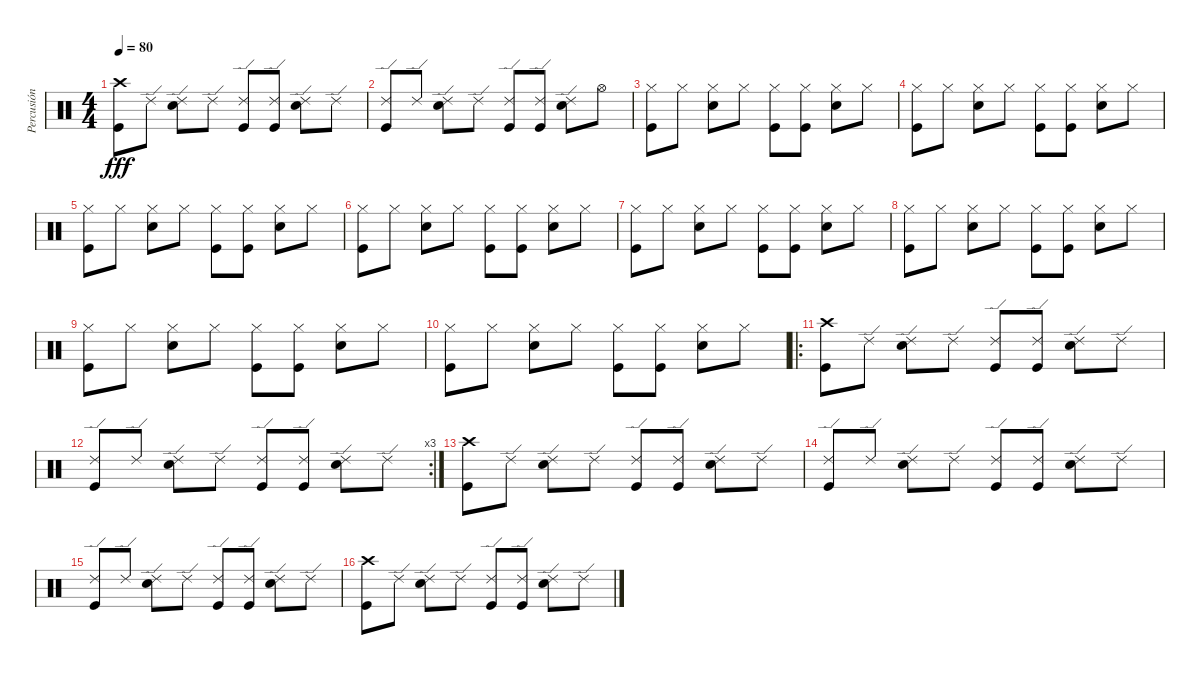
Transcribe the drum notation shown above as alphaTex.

\track ("Percusión" "Percusión") {instrument percussion}
\staff {score}
\articulation defaults
\ts (4 4)
\tempo 80
\clef neutral
\ks c
("Crash high (hit)" "Kick (hit)").8{dy fff} "Ride (edge) 2".8 ("Ride (edge) 2" "Electric Snare (hit)").8 "Ride (edge) 2".8 ("Ride (edge) 2" "Kick (hit)").8 ("Ride (edge) 2" "Kick (hit)").8 ("Ride (edge) 2" "Electric Snare (hit)").8 "Ride (edge) 2".8 |
("Ride (edge) 2" "Kick (hit)").8 "Ride (edge) 2".8 ("Ride (edge) 2" "Electric Snare (hit)").8 "Ride (edge) 2".8 ("Ride (edge) 2" "Kick (hit)").8 ("Ride (edge) 2" "Kick (hit)").8 ("Ride (edge) 2" "Electric Snare (hit)").8 "Hi-Hat (open)".8 |
("Hi-Hat (closed)" "Kick (hit)").8 "Hi-Hat (closed)".8 ("Hi-Hat (closed)" "Electric Snare (hit)").8 "Hi-Hat (closed)".8 ("Hi-Hat (closed)" "Kick (hit)").8 ("Hi-Hat (closed)" "Kick (hit)").8 ("Hi-Hat (closed)" "Electric Snare (hit)").8 "Hi-Hat (closed)".8 |
("Hi-Hat (closed)" "Kick (hit)").8 "Hi-Hat (closed)".8 ("Hi-Hat (closed)" "Electric Snare (hit)").8 "Hi-Hat (closed)".8 ("Hi-Hat (closed)" "Kick (hit)").8 ("Hi-Hat (closed)" "Kick (hit)").8 ("Hi-Hat (closed)" "Electric Snare (hit)").8 "Hi-Hat (closed)".8 |
("Hi-Hat (closed)" "Kick (hit)").8 "Hi-Hat (closed)".8 ("Hi-Hat (closed)" "Electric Snare (hit)").8 "Hi-Hat (closed)".8 ("Hi-Hat (closed)" "Kick (hit)").8 ("Hi-Hat (closed)" "Kick (hit)").8 ("Hi-Hat (closed)" "Electric Snare (hit)").8 "Hi-Hat (closed)".8 |
("Hi-Hat (closed)" "Kick (hit)").8 "Hi-Hat (closed)".8 ("Hi-Hat (closed)" "Electric Snare (hit)").8 "Hi-Hat (closed)".8 ("Hi-Hat (closed)" "Kick (hit)").8 ("Hi-Hat (closed)" "Kick (hit)").8 ("Hi-Hat (closed)" "Electric Snare (hit)").8 "Hi-Hat (closed)".8 |
("Hi-Hat (closed)" "Kick (hit)").8 "Hi-Hat (closed)".8 ("Hi-Hat (closed)" "Electric Snare (hit)").8 "Hi-Hat (closed)".8 ("Hi-Hat (closed)" "Kick (hit)").8 ("Hi-Hat (closed)" "Kick (hit)").8 ("Hi-Hat (closed)" "Electric Snare (hit)").8 "Hi-Hat (closed)".8 |
("Hi-Hat (closed)" "Kick (hit)").8 "Hi-Hat (closed)".8 ("Hi-Hat (closed)" "Electric Snare (hit)").8 "Hi-Hat (closed)".8 ("Hi-Hat (closed)" "Kick (hit)").8 ("Hi-Hat (closed)" "Kick (hit)").8 ("Hi-Hat (closed)" "Electric Snare (hit)").8 "Hi-Hat (closed)".8 |
("Hi-Hat (closed)" "Kick (hit)").8 "Hi-Hat (closed)".8 ("Hi-Hat (closed)" "Electric Snare (hit)").8 "Hi-Hat (closed)".8 ("Hi-Hat (closed)" "Kick (hit)").8 ("Hi-Hat (closed)" "Kick (hit)").8 ("Hi-Hat (closed)" "Electric Snare (hit)").8 "Hi-Hat (closed)".8 |
("Hi-Hat (closed)" "Kick (hit)").8 "Hi-Hat (closed)".8 ("Hi-Hat (closed)" "Electric Snare (hit)").8 "Hi-Hat (closed)".8 ("Hi-Hat (closed)" "Kick (hit)").8 ("Hi-Hat (closed)" "Kick (hit)").8 ("Hi-Hat (closed)" "Electric Snare (hit)").8 "Hi-Hat (closed)".8 |
\ro
("Crash high (hit)" "Kick (hit)").8 "Ride (edge) 2".8 ("Ride (edge) 2" "Electric Snare (hit)").8 "Ride (edge) 2".8 ("Ride (edge) 2" "Kick (hit)").8 ("Ride (edge) 2" "Kick (hit)").8 ("Ride (edge) 2" "Electric Snare (hit)").8 "Ride (edge) 2".8 |
\rc 3
("Ride (edge) 2" "Kick (hit)").8 "Ride (edge) 2".8 ("Ride (edge) 2" "Electric Snare (hit)").8 "Ride (edge) 2".8 ("Ride (edge) 2" "Kick (hit)").8 ("Ride (edge) 2" "Kick (hit)").8 ("Ride (edge) 2" "Electric Snare (hit)").8 "Ride (edge) 2".8 |
("Crash high (hit)" "Kick (hit)").8 "Ride (edge) 2".8 ("Ride (edge) 2" "Electric Snare (hit)").8 "Ride (edge) 2".8 ("Ride (edge) 2" "Kick (hit)").8 ("Ride (edge) 2" "Kick (hit)").8 ("Ride (edge) 2" "Electric Snare (hit)").8 "Ride (edge) 2".8 |
("Ride (edge) 2" "Kick (hit)").8 "Ride (edge) 2".8 ("Ride (edge) 2" "Electric Snare (hit)").8 "Ride (edge) 2".8 ("Ride (edge) 2" "Kick (hit)").8 ("Ride (edge) 2" "Kick (hit)").8 ("Ride (edge) 2" "Electric Snare (hit)").8 "Ride (edge) 2".8 |
("Ride (edge) 2" "Kick (hit)").8 "Ride (edge) 2".8 ("Ride (edge) 2" "Electric Snare (hit)").8 "Ride (edge) 2".8 ("Ride (edge) 2" "Kick (hit)").8 ("Ride (edge) 2" "Kick (hit)").8 ("Ride (edge) 2" "Electric Snare (hit)").8 "Ride (edge) 2".8 |
("Crash high (hit)" "Kick (hit)").8 "Ride (edge) 2".8 ("Ride (edge) 2" "Electric Snare (hit)").8 "Ride (edge) 2".8 ("Ride (edge) 2" "Kick (hit)").8 ("Ride (edge) 2" "Kick (hit)").8 ("Ride (edge) 2" "Electric Snare (hit)").8 "Ride (edge) 2".8
